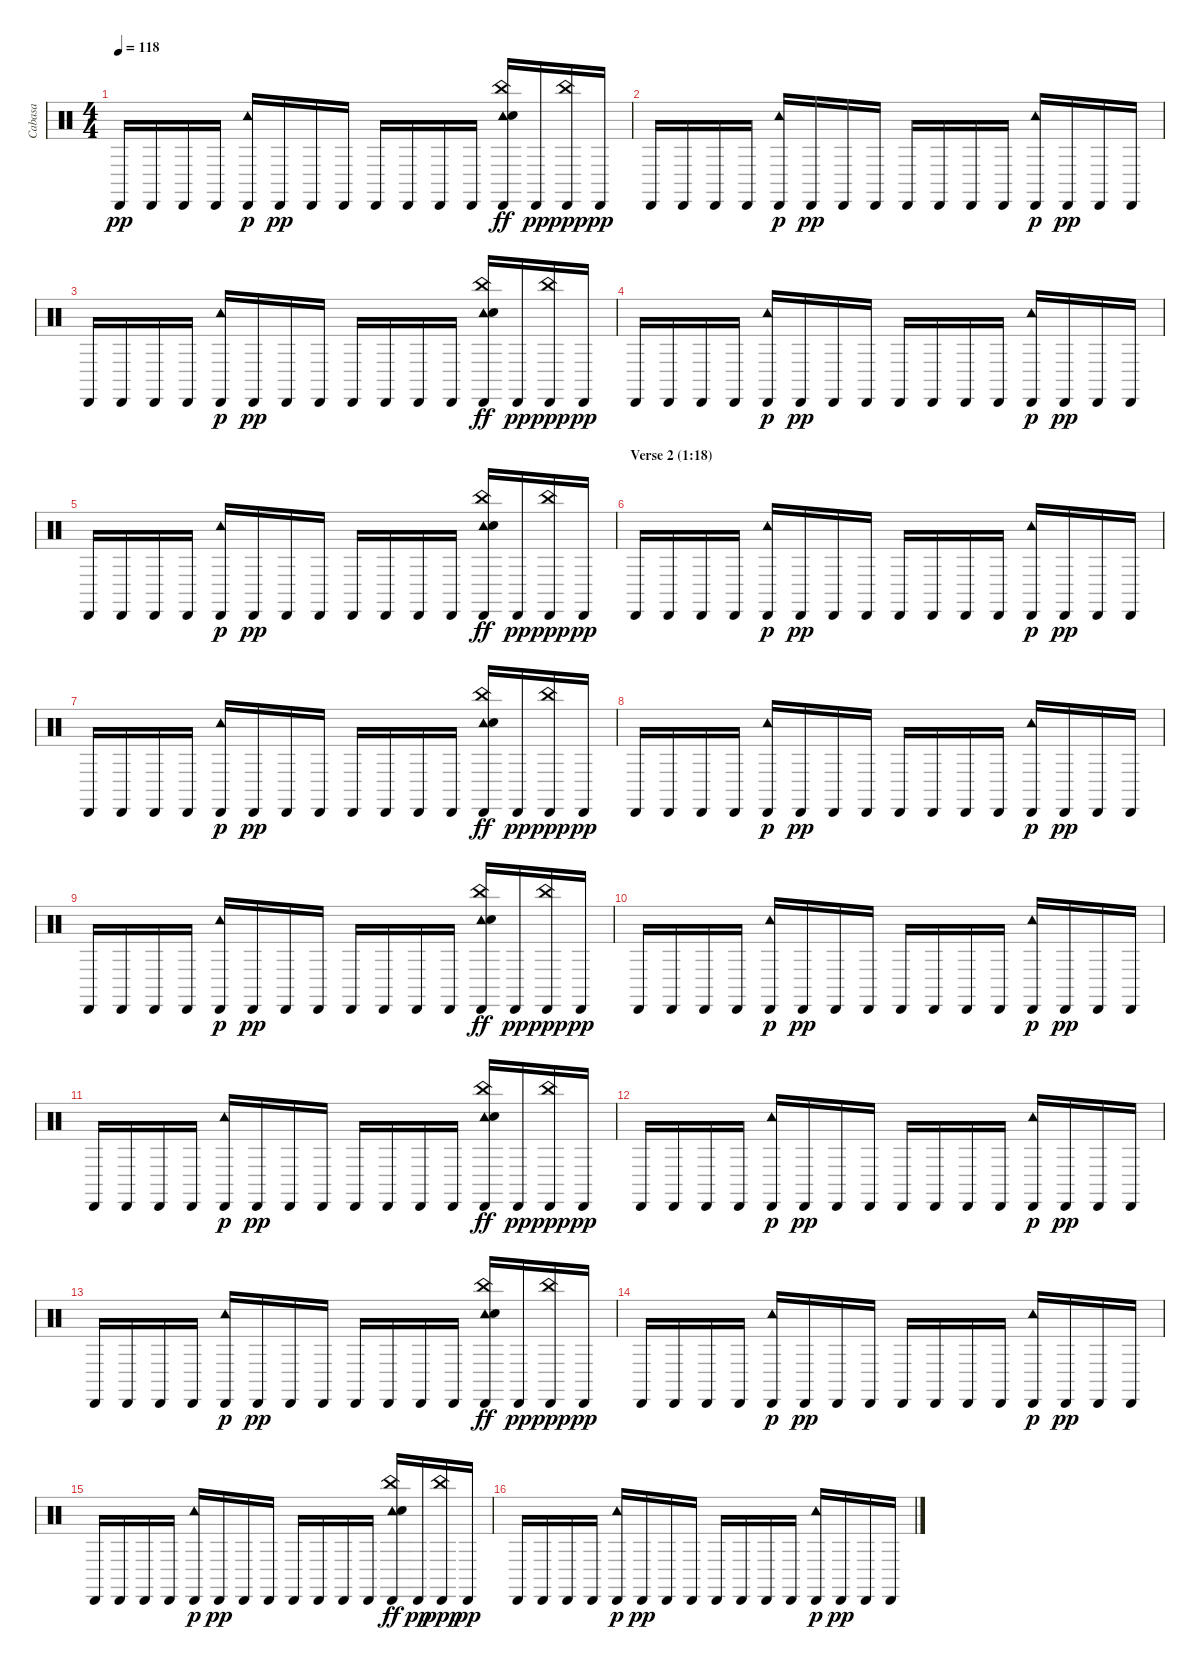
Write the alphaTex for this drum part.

\track ("Cabasa" "Cabasa") {instrument percussion}
\staff {score}
\articulation defaults
\ts (4 4)
\tempo 118
\clef neutral
\ks c "Cabasa (hit)".16{dy pp} "Cabasa (hit)".16 "Cabasa (hit)".16 "Cabasa (hit)".16
("Cabasa (hit)" "Tambourine (hit)").16{dy p} "Cabasa (hit)".16{dy pp} "Cabasa (hit)".16 "Cabasa (hit)".16 "Cabasa (hit)".16 "Cabasa (hit)".16 "Cabasa (hit)".16 "Cabasa (hit)".16 ("Cabasa (hit)" "Tambourine (hit)" "Hand Clap (hit)" "China (hit)").16{dy ff} "Cabasa (hit)".16{dy pp} ("Cabasa (hit)" "China (hit)").16{dy ppp} "Cabasa (hit)".16{dy pp} |
"Cabasa (hit)".16 "Cabasa (hit)".16 "Cabasa (hit)".16 "Cabasa (hit)".16 ("Cabasa (hit)" "Tambourine (hit)").16{dy p} "Cabasa (hit)".16{dy pp} "Cabasa (hit)".16 "Cabasa (hit)".16 "Cabasa (hit)".16 "Cabasa (hit)".16 "Cabasa (hit)".16 "Cabasa (hit)".16 ("Cabasa (hit)" "Tambourine (hit)").16{dy p} "Cabasa (hit)".16{dy pp} "Cabasa (hit)".16 "Cabasa (hit)".16 |
"Cabasa (hit)".16 "Cabasa (hit)".16 "Cabasa (hit)".16 "Cabasa (hit)".16 ("Cabasa (hit)" "Tambourine (hit)").16{dy p} "Cabasa (hit)".16{dy pp} "Cabasa (hit)".16 "Cabasa (hit)".16 "Cabasa (hit)".16 "Cabasa (hit)".16 "Cabasa (hit)".16 "Cabasa (hit)".16 ("Cabasa (hit)" "Tambourine (hit)" "Hand Clap (hit)" "China (hit)").16{dy ff} "Cabasa (hit)".16{dy pp} ("Cabasa (hit)" "China (hit)").16{dy ppp} "Cabasa (hit)".16{dy pp} |
"Cabasa (hit)".16 "Cabasa (hit)".16 "Cabasa (hit)".16 "Cabasa (hit)".16 ("Cabasa (hit)" "Tambourine (hit)").16{dy p} "Cabasa (hit)".16{dy pp} "Cabasa (hit)".16 "Cabasa (hit)".16 "Cabasa (hit)".16 "Cabasa (hit)".16 "Cabasa (hit)".16 "Cabasa (hit)".16 ("Cabasa (hit)" "Tambourine (hit)").16{dy p} "Cabasa (hit)".16{dy pp} "Cabasa (hit)".16 "Cabasa (hit)".16 |
"Cabasa (hit)".16 "Cabasa (hit)".16 "Cabasa (hit)".16 "Cabasa (hit)".16 ("Cabasa (hit)" "Tambourine (hit)").16{dy p} "Cabasa (hit)".16{dy pp} "Cabasa (hit)".16 "Cabasa (hit)".16 "Cabasa (hit)".16 "Cabasa (hit)".16 "Cabasa (hit)".16 "Cabasa (hit)".16 ("Cabasa (hit)" "Tambourine (hit)" "Hand Clap (hit)" "China (hit)").16{dy ff} "Cabasa (hit)".16{dy pp} ("Cabasa (hit)" "China (hit)").16{dy ppp} "Cabasa (hit)".16{dy pp} |
\section ("" "Verse 2 (1:18)")
"Cabasa (hit)".16 "Cabasa (hit)".16 "Cabasa (hit)".16 "Cabasa (hit)".16 ("Cabasa (hit)" "Tambourine (hit)").16{dy p} "Cabasa (hit)".16{dy pp} "Cabasa (hit)".16 "Cabasa (hit)".16 "Cabasa (hit)".16 "Cabasa (hit)".16 "Cabasa (hit)".16 "Cabasa (hit)".16 ("Cabasa (hit)" "Tambourine (hit)").16{dy p} "Cabasa (hit)".16{dy pp} "Cabasa (hit)".16 "Cabasa (hit)".16 |
"Cabasa (hit)".16 "Cabasa (hit)".16 "Cabasa (hit)".16 "Cabasa (hit)".16 ("Cabasa (hit)" "Tambourine (hit)").16{dy p} "Cabasa (hit)".16{dy pp} "Cabasa (hit)".16 "Cabasa (hit)".16 "Cabasa (hit)".16 "Cabasa (hit)".16 "Cabasa (hit)".16 "Cabasa (hit)".16 ("Cabasa (hit)" "Tambourine (hit)" "Hand Clap (hit)" "China (hit)").16{dy ff} "Cabasa (hit)".16{dy pp} ("Cabasa (hit)" "China (hit)").16{dy ppp} "Cabasa (hit)".16{dy pp} |
"Cabasa (hit)".16 "Cabasa (hit)".16 "Cabasa (hit)".16 "Cabasa (hit)".16 ("Cabasa (hit)" "Tambourine (hit)").16{dy p} "Cabasa (hit)".16{dy pp} "Cabasa (hit)".16 "Cabasa (hit)".16 "Cabasa (hit)".16 "Cabasa (hit)".16 "Cabasa (hit)".16 "Cabasa (hit)".16 ("Cabasa (hit)" "Tambourine (hit)").16{dy p} "Cabasa (hit)".16{dy pp} "Cabasa (hit)".16 "Cabasa (hit)".16 |
"Cabasa (hit)".16 "Cabasa (hit)".16 "Cabasa (hit)".16 "Cabasa (hit)".16 ("Cabasa (hit)" "Tambourine (hit)").16{dy p} "Cabasa (hit)".16{dy pp} "Cabasa (hit)".16 "Cabasa (hit)".16 "Cabasa (hit)".16 "Cabasa (hit)".16 "Cabasa (hit)".16 "Cabasa (hit)".16 ("Cabasa (hit)" "Tambourine (hit)" "Hand Clap (hit)" "China (hit)").16{dy ff} "Cabasa (hit)".16{dy pp} ("Cabasa (hit)" "China (hit)").16{dy ppp} "Cabasa (hit)".16{dy pp} |
"Cabasa (hit)".16 "Cabasa (hit)".16 "Cabasa (hit)".16 "Cabasa (hit)".16 ("Cabasa (hit)" "Tambourine (hit)").16{dy p} "Cabasa (hit)".16{dy pp} "Cabasa (hit)".16 "Cabasa (hit)".16 "Cabasa (hit)".16 "Cabasa (hit)".16 "Cabasa (hit)".16 "Cabasa (hit)".16 ("Cabasa (hit)" "Tambourine (hit)").16{dy p} "Cabasa (hit)".16{dy pp} "Cabasa (hit)".16 "Cabasa (hit)".16 |
"Cabasa (hit)".16 "Cabasa (hit)".16 "Cabasa (hit)".16 "Cabasa (hit)".16 ("Cabasa (hit)" "Tambourine (hit)").16{dy p} "Cabasa (hit)".16{dy pp} "Cabasa (hit)".16 "Cabasa (hit)".16 "Cabasa (hit)".16 "Cabasa (hit)".16 "Cabasa (hit)".16 "Cabasa (hit)".16 ("Cabasa (hit)" "Tambourine (hit)" "Hand Clap (hit)" "China (hit)").16{dy ff} "Cabasa (hit)".16{dy pp} ("Cabasa (hit)" "China (hit)").16{dy ppp} "Cabasa (hit)".16{dy pp} |
"Cabasa (hit)".16 "Cabasa (hit)".16 "Cabasa (hit)".16 "Cabasa (hit)".16 ("Cabasa (hit)" "Tambourine (hit)").16{dy p} "Cabasa (hit)".16{dy pp} "Cabasa (hit)".16 "Cabasa (hit)".16 "Cabasa (hit)".16 "Cabasa (hit)".16 "Cabasa (hit)".16 "Cabasa (hit)".16 ("Cabasa (hit)" "Tambourine (hit)").16{dy p} "Cabasa (hit)".16{dy pp} "Cabasa (hit)".16 "Cabasa (hit)".16 |
"Cabasa (hit)".16 "Cabasa (hit)".16 "Cabasa (hit)".16 "Cabasa (hit)".16 ("Cabasa (hit)" "Tambourine (hit)").16{dy p} "Cabasa (hit)".16{dy pp} "Cabasa (hit)".16 "Cabasa (hit)".16 "Cabasa (hit)".16 "Cabasa (hit)".16 "Cabasa (hit)".16 "Cabasa (hit)".16 ("Cabasa (hit)" "Tambourine (hit)" "Hand Clap (hit)" "China (hit)").16{dy ff} "Cabasa (hit)".16{dy pp} ("Cabasa (hit)" "China (hit)").16{dy ppp} "Cabasa (hit)".16{dy pp} |
"Cabasa (hit)".16 "Cabasa (hit)".16 "Cabasa (hit)".16 "Cabasa (hit)".16 ("Cabasa (hit)" "Tambourine (hit)").16{dy p} "Cabasa (hit)".16{dy pp} "Cabasa (hit)".16 "Cabasa (hit)".16 "Cabasa (hit)".16 "Cabasa (hit)".16 "Cabasa (hit)".16 "Cabasa (hit)".16 ("Cabasa (hit)" "Tambourine (hit)").16{dy p} "Cabasa (hit)".16{dy pp} "Cabasa (hit)".16 "Cabasa (hit)".16 |
"Cabasa (hit)".16 "Cabasa (hit)".16 "Cabasa (hit)".16 "Cabasa (hit)".16 ("Cabasa (hit)" "Tambourine (hit)").16{dy p} "Cabasa (hit)".16{dy pp} "Cabasa (hit)".16 "Cabasa (hit)".16 "Cabasa (hit)".16 "Cabasa (hit)".16 "Cabasa (hit)".16 "Cabasa (hit)".16 ("Cabasa (hit)" "Tambourine (hit)" "Hand Clap (hit)" "China (hit)").16{dy ff} "Cabasa (hit)".16{dy pp} ("Cabasa (hit)" "China (hit)").16{dy ppp} "Cabasa (hit)".16{dy pp} |
"Cabasa (hit)".16 "Cabasa (hit)".16 "Cabasa (hit)".16 "Cabasa (hit)".16 ("Cabasa (hit)" "Tambourine (hit)").16{dy p} "Cabasa (hit)".16{dy pp} "Cabasa (hit)".16 "Cabasa (hit)".16 "Cabasa (hit)".16 "Cabasa (hit)".16 "Cabasa (hit)".16 "Cabasa (hit)".16 ("Cabasa (hit)" "Tambourine (hit)").16{dy p} "Cabasa (hit)".16{dy pp} "Cabasa (hit)".16 "Cabasa (hit)".16
